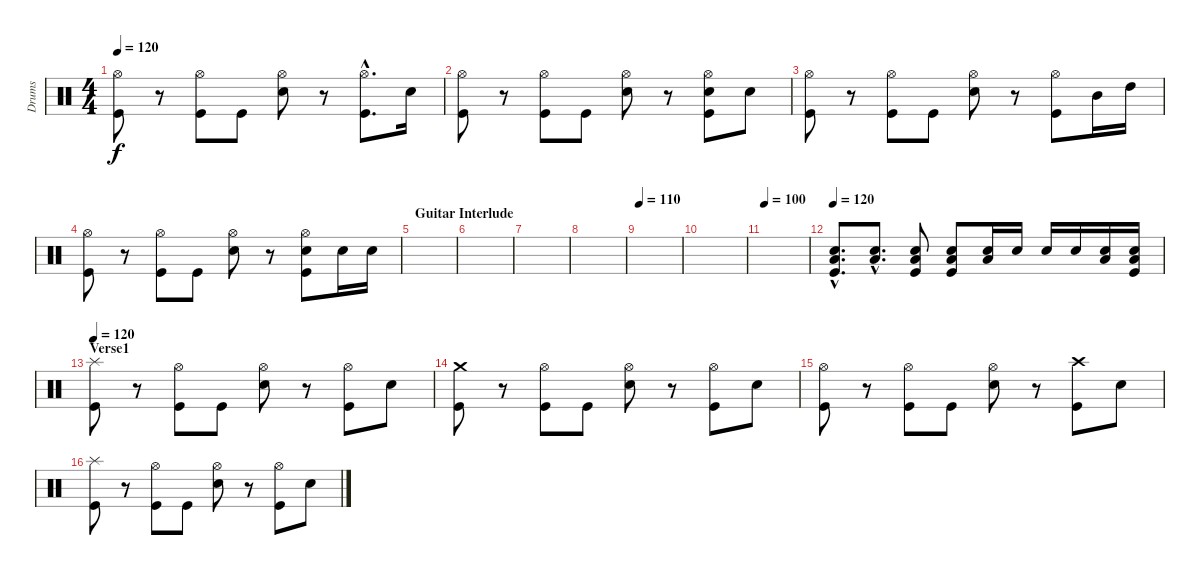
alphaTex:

\track ("Drums" "Drums") {instrument percussion}
\staff {score}
\articulation defaults
\ts (4 4)
\tempo 120
\clef neutral
\ks c
("Hi-Hat (open)" "Kick (hit)").8{dy f} r.8 ("Hi-Hat (open)" "Kick (hit)").8 "Kick (hit)".8 ("Hi-Hat (open)" "Snare (hit) 2").8 r.8 ("Hi-Hat (open)"{hac} "Kick (hit)"{hac}).8{d} "Snare (hit) 2".16 |
("Hi-Hat (open)" "Kick (hit)").8 r.8 ("Hi-Hat (open)" "Kick (hit)").8 "Kick (hit)".8 ("Hi-Hat (open)" "Snare (hit) 2").8 r.8 ("Hi-Hat (open)" "Snare (hit) 2" "Kick (hit)").8 "Snare (hit) 2".8 |
("Hi-Hat (open)" "Kick (hit)").8 r.8 ("Hi-Hat (open)" "Kick (hit)").8 "Kick (hit)".8 ("Hi-Hat (open)" "Snare (hit) 2").8 r.8 ("Hi-Hat (open)" "Kick (hit)").8 "Mid Tom (hit)".16 "High Tom (hit)".16 |
("Hi-Hat (open)" "Kick (hit)").8 r.8 ("Hi-Hat (open)" "Kick (hit)").8 "Kick (hit)".8 ("Hi-Hat (open)" "Snare (hit) 2").8 r.8 ("Hi-Hat (open)" "Snare (hit) 2" "Kick (hit)").8 "Snare (hit) 2".16 "Snare (hit) 2".16 |
\section ("" "Guitar Interlude")
|
|
|
|
\tempo 110
|
|
\tempo 100
|
\tempo 120
("Snare (hit) 2"{hac} "Low Tom (hit)"{hac} "Kick (hit)"{hac}).8{d} ("Snare (hit) 2"{hac} "Low Tom (hit)"{hac}).8{d} ("Snare (hit) 2" "Low Tom (hit)" "Kick (hit)").8 ("Snare (hit) 2" "Low Tom (hit)" "Kick (hit)").8 ("Snare (hit) 2" "Low Tom (hit)").16 "Snare (hit) 2".16 "Snare (hit) 2".16 "Snare (hit) 2".16 ("Snare (hit) 2" "Low Tom (hit)").16 ("Snare (hit) 2" "Low Tom (hit)" "Kick (hit)").16 |
\section ("" "Verse1")
\tempo 120
("Splash (hit)" "Kick (hit)").8 r.8 ("Hi-Hat (open)" "Kick (hit)").8 "Kick (hit)".8 ("Hi-Hat (open)" "Snare (hit) 2").8 r.8 ("Hi-Hat (open)" "Kick (hit)").8 "Snare (hit) 2".8 |
("Crash medium (hit)" "Kick (hit)").8 r.8 ("Hi-Hat (open)" "Kick (hit)").8 "Kick (hit)".8 ("Hi-Hat (open)" "Snare (hit) 2").8 r.8 ("Hi-Hat (open)" "Kick (hit)").8 "Snare (hit) 2".8 |
("Hi-Hat (open)" "Kick (hit)").8 r.8 ("Hi-Hat (open)" "Kick (hit)").8 "Kick (hit)".8 ("Hi-Hat (open)" "Snare (hit) 2").8 r.8 ("Crash high (hit)" "Kick (hit)").8 "Snare (hit) 2".8 |
("Splash (hit)" "Kick (hit)").8 r.8 ("Hi-Hat (open)" "Kick (hit)").8 "Kick (hit)".8 ("Hi-Hat (open)" "Snare (hit) 2").8 r.8 ("Hi-Hat (open)" "Kick (hit)").8 "Snare (hit) 2".8
